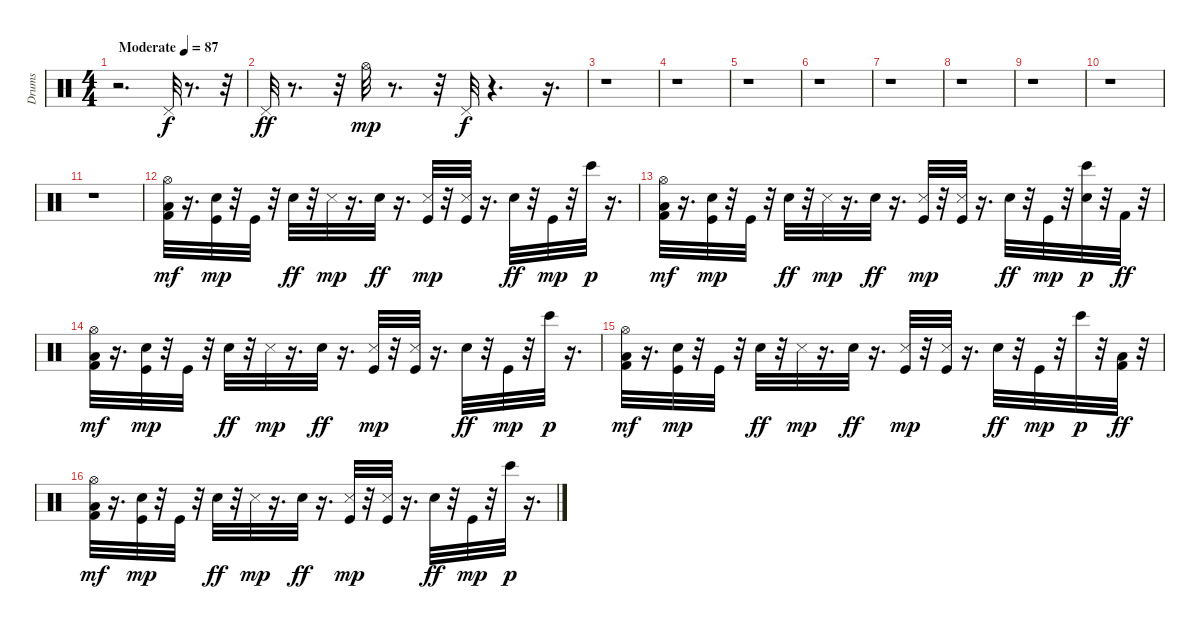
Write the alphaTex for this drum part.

\track ("Drums     " "Drums     ") {instrument percussion}
\staff {score}
\articulation defaults
\ts (4 4)
\tempo (87 "Moderate")
\clef neutral
\ks c
r.2{d dy f} "Pedal Hi-Hat (hit)".32 r.8{d} r.32 |
"Pedal Hi-Hat (hit)".32{dy ff} r.8{d} r.32 "Hi-Hat (open)".32{dy mp} r.8{d} r.32 "Pedal Hi-Hat (hit)".32{dy f} r.4{d} r.16{d} |
r.1 |
r.1 |
r.1 |
r.1 |
r.1 |
r.1 |
r.1 |
r.1 |
r.1 |
("Kick (hit) 2" "Low Floor Tom (hit)" "Hi-Hat (open)").32{dy mf} r.16{d} ("Kick (hit)" "Snare (hit) 2").32{dy mp} r.32 "Kick (hit)".32 r.32 "Hand Clap (hit)".32{dy ff} r.32 "Snare (side stick) 3".32{dy mp} r.16{d} "Hand Clap (hit)".32{dy ff} r.16{d} ("Kick (hit)" "Snare (side stick) 3").32{dy mp} r.32 ("Kick (hit)" "Snare (side stick) 3").32 r.16{d} "Hand Clap (hit)".32{dy ff} r.32 "Kick (hit)".32{dy mp} r.32 "Bongo High (hit)".32{dy p} r.16{d} |
("Kick (hit) 2" "Low Floor Tom (hit)" "Hi-Hat (open)").32{dy mf} r.16{d} ("Kick (hit)" "Snare (hit) 2").32{dy mp} r.32 "Kick (hit)".32 r.32 "Hand Clap (hit)".32{dy ff} r.32 "Snare (side stick) 3".32{dy mp} r.16{d} "Hand Clap (hit)".32{dy ff} r.16{d} ("Kick (hit)" "Snare (side stick) 3").32{dy mp} r.32 ("Kick (hit)" "Snare (side stick) 3").32 r.16{d} "Hand Clap (hit)".32{dy ff} r.32 "Kick (hit)".32{dy mp} r.32 ("Snare (hit) 2" "Bongo High (hit)").32{dy p} r.32 "Kick (hit) 2".32{dy ff} r.32 |
("Kick (hit) 2" "Low Floor Tom (hit)" "Hi-Hat (open)").32{dy mf} r.16{d} ("Kick (hit)" "Snare (hit) 2").32{dy mp} r.32 "Kick (hit)".32 r.32 "Hand Clap (hit)".32{dy ff} r.32 "Snare (side stick) 3".32{dy mp} r.16{d} "Hand Clap (hit)".32{dy ff} r.16{d} ("Kick (hit)" "Snare (side stick) 3").32{dy mp} r.32 ("Kick (hit)" "Snare (side stick) 3").32 r.16{d} "Hand Clap (hit)".32{dy ff} r.32 "Kick (hit)".32{dy mp} r.32 "Bongo High (hit)".32{dy p} r.16{d} |
("Kick (hit) 2" "Low Floor Tom (hit)" "Hi-Hat (open)").32{dy mf} r.16{d} ("Kick (hit)" "Snare (hit) 2").32{dy mp} r.32 "Kick (hit)".32 r.32 "Hand Clap (hit)".32{dy ff} r.32 "Snare (side stick) 3".32{dy mp} r.16{d} "Hand Clap (hit)".32{dy ff} r.16{d} ("Kick (hit)" "Snare (side stick) 3").32{dy mp} r.32 ("Kick (hit)" "Snare (side stick) 3").32 r.16{d} "Hand Clap (hit)".32{dy ff} r.32 "Kick (hit)".32{dy mp} r.32 "Bongo High (hit)".32{dy p} r.32 ("Kick (hit) 2" "Low Floor Tom (hit)").32{dy ff} r.32 |
("Kick (hit) 2" "Low Floor Tom (hit)" "Hi-Hat (open)").32{dy mf} r.16{d} ("Kick (hit)" "Snare (hit) 2").32{dy mp} r.32 "Kick (hit)".32 r.32 "Hand Clap (hit)".32{dy ff} r.32 "Snare (side stick) 3".32{dy mp} r.16{d} "Hand Clap (hit)".32{dy ff} r.16{d} ("Kick (hit)" "Snare (side stick) 3").32{dy mp} r.32 ("Kick (hit)" "Snare (side stick) 3").32 r.16{d} "Hand Clap (hit)".32{dy ff} r.32 "Kick (hit)".32{dy mp} r.32 "Bongo High (hit)".32{dy p} r.16{d}
